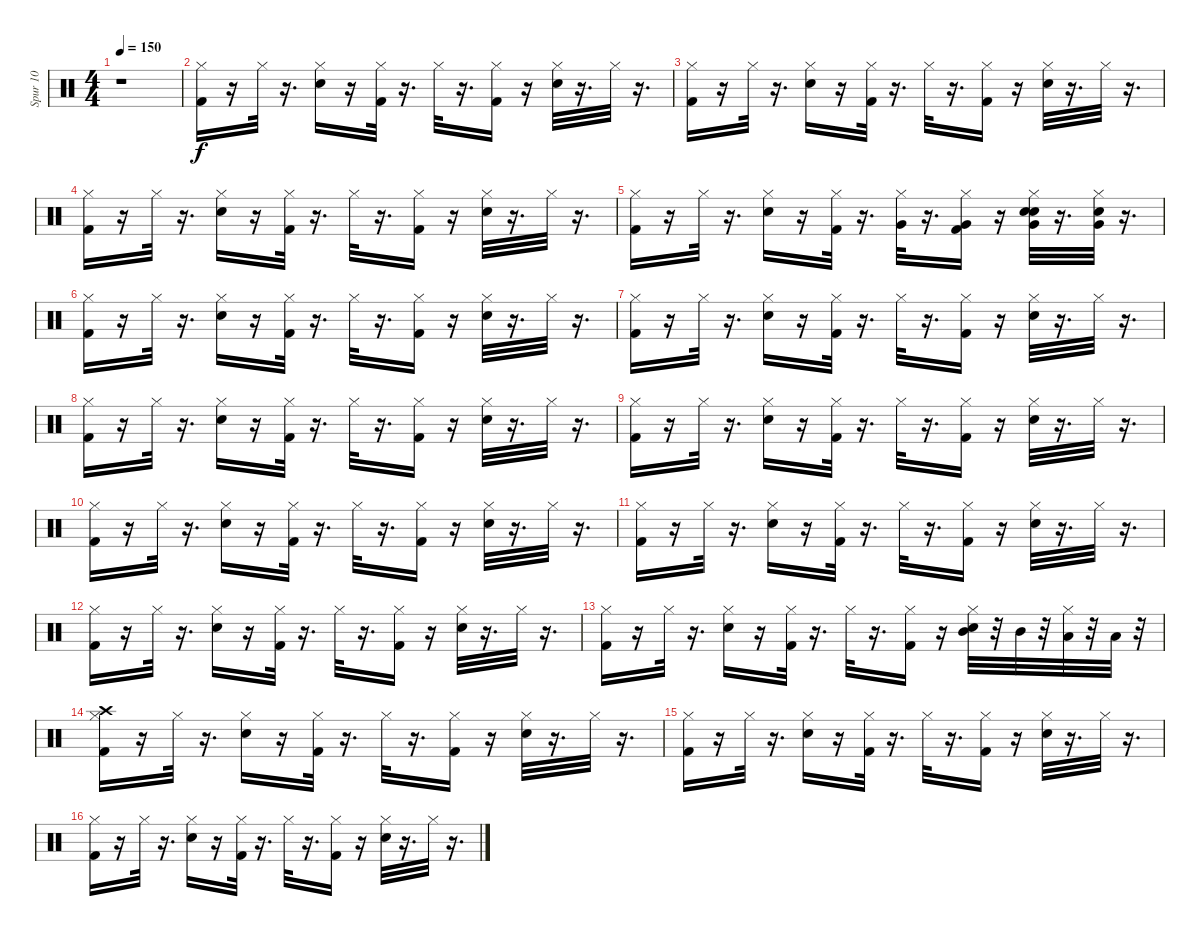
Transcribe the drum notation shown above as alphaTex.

\track ("Spur 10" "Spur 10") {instrument percussion}
\staff {score}
\articulation defaults
\ts (4 4)
\tempo 150
\clef neutral
\ks c
r.1{dy f} |
("Hi-Hat (closed)" "Kick (hit) 2").16 r.16 "Hi-Hat (closed)".32 r.16{d} ("Hi-Hat (closed)" "Electric Snare (hit)").16 r.16 ("Hi-Hat (closed)" "Kick (hit) 2").32 r.16{d} "Hi-Hat (closed)".32 r.16{d} ("Kick (hit) 2" "Hi-Hat (closed)").16 r.16 ("Electric Snare (hit)" "Hi-Hat (closed)").32 r.16{d} "Hi-Hat (closed)".32 r.16{d} |
("Kick (hit) 2" "Hi-Hat (closed)").16 r.16 "Hi-Hat (closed)".32 r.16{d} ("Electric Snare (hit)" "Hi-Hat (closed)").16 r.16 ("Kick (hit) 2" "Hi-Hat (closed)").32 r.16{d} "Hi-Hat (closed)".32 r.16{d} ("Kick (hit) 2" "Hi-Hat (closed)").16 r.16 ("Electric Snare (hit)" "Hi-Hat (closed)").32 r.16{d} "Hi-Hat (closed)".32 r.16{d} |
("Kick (hit) 2" "Hi-Hat (closed)").16 r.16 "Hi-Hat (closed)".32 r.16{d} ("Electric Snare (hit)" "Hi-Hat (closed)").16 r.16 ("Kick (hit) 2" "Hi-Hat (closed)").32 r.16{d} "Hi-Hat (closed)".32 r.16{d} ("Kick (hit) 2" "Hi-Hat (closed)").16 r.16 ("Electric Snare (hit)" "Hi-Hat (closed)").32 r.16{d} "Hi-Hat (closed)".32 r.16{d} |
("Kick (hit) 2" "Hi-Hat (closed)").16 r.16 "Hi-Hat (closed)".32 r.16{d} ("Electric Snare (hit)" "Hi-Hat (closed)").16 r.16 ("Kick (hit) 2" "Hi-Hat (closed)").32 r.16{d} ("Very Low Tom (hit)" "Hi-Hat (closed)").32 r.16{d} ("Kick (hit) 2" "Hi-Hat (closed)" "Very Low Tom (hit)").16 r.16 ("Electric Snare (hit)" "Hand Clap (hit)" "Very Low Tom (hit)" "Hi-Hat (closed)").32 r.16{d} ("Hand Clap (hit)" "Very Low Tom (hit)" "Hi-Hat (closed)").32 r.16{d} |
("Hi-Hat (closed)" "Kick (hit) 2").16 r.16 "Hi-Hat (closed)".32 r.16{d} ("Hi-Hat (closed)" "Electric Snare (hit)").16 r.16 ("Kick (hit) 2" "Hi-Hat (closed)").32 r.16{d} "Hi-Hat (closed)".32 r.16{d} ("Hi-Hat (closed)" "Kick (hit) 2").16 r.16 ("Hi-Hat (closed)" "Electric Snare (hit)").32 r.16{d} "Hi-Hat (closed)".32 r.16{d} |
("Kick (hit) 2" "Hi-Hat (closed)").16 r.16 "Hi-Hat (closed)".32 r.16{d} ("Electric Snare (hit)" "Hi-Hat (closed)").16 r.16 ("Kick (hit) 2" "Hi-Hat (closed)").32 r.16{d} "Hi-Hat (closed)".32 r.16{d} ("Kick (hit) 2" "Hi-Hat (closed)").16 r.16 ("Electric Snare (hit)" "Hi-Hat (closed)").32 r.16{d} "Hi-Hat (closed)".32 r.16{d} |
("Kick (hit) 2" "Hi-Hat (closed)").16 r.16 "Hi-Hat (closed)".32 r.16{d} ("Electric Snare (hit)" "Hi-Hat (closed)").16 r.16 ("Kick (hit) 2" "Hi-Hat (closed)").32 r.16{d} "Hi-Hat (closed)".32 r.16{d} ("Kick (hit) 2" "Hi-Hat (closed)").16 r.16 ("Electric Snare (hit)" "Hi-Hat (closed)").32 r.16{d} "Hi-Hat (closed)".32 r.16{d} |
("Kick (hit) 2" "Hi-Hat (closed)").16 r.16 "Hi-Hat (closed)".32 r.16{d} ("Electric Snare (hit)" "Hi-Hat (closed)").16 r.16 ("Kick (hit) 2" "Hi-Hat (closed)").32 r.16{d} "Hi-Hat (closed)".32 r.16{d} ("Kick (hit) 2" "Hi-Hat (closed)").16 r.16 ("Electric Snare (hit)" "Hi-Hat (closed)").32 r.16{d} "Hi-Hat (closed)".32 r.16{d} |
("Hi-Hat (closed)" "Kick (hit) 2").16 r.16 "Hi-Hat (closed)".32 r.16{d} ("Electric Snare (hit)" "Hi-Hat (closed)").16 r.16 ("Hi-Hat (closed)" "Kick (hit) 2").32 r.16{d} "Hi-Hat (closed)".32 r.16{d} ("Hi-Hat (closed)" "Kick (hit) 2").16 r.16 ("Hi-Hat (closed)" "Electric Snare (hit)").32 r.16{d} "Hi-Hat (closed)".32 r.16{d} |
("Hi-Hat (closed)" "Kick (hit) 2").16 r.16 "Hi-Hat (closed)".32 r.16{d} ("Electric Snare (hit)" "Hi-Hat (closed)").16 r.16 ("Kick (hit) 2" "Hi-Hat (closed)").32 r.16{d} "Hi-Hat (closed)".32 r.16{d} ("Kick (hit) 2" "Hi-Hat (closed)").16 r.16 ("Electric Snare (hit)" "Hi-Hat (closed)").32 r.16{d} "Hi-Hat (closed)".32 r.16{d} |
("Kick (hit) 2" "Hi-Hat (closed)").16 r.16 "Hi-Hat (closed)".32 r.16{d} ("Electric Snare (hit)" "Hi-Hat (closed)").16 r.16 ("Kick (hit) 2" "Hi-Hat (closed)").32 r.16{d} "Hi-Hat (closed)".32 r.16{d} ("Kick (hit) 2" "Hi-Hat (closed)").16 r.16 ("Electric Snare (hit)" "Hi-Hat (closed)").32 r.16{d} "Hi-Hat (closed)".32 r.16{d} |
("Kick (hit) 2" "Hi-Hat (closed)").16 r.16 "Hi-Hat (closed)".32 r.16{d} ("Electric Snare (hit)" "Hi-Hat (closed)").16 r.16 ("Kick (hit) 2" "Hi-Hat (closed)").32 r.16{d} "Hi-Hat (closed)".32 r.16{d} ("Kick (hit) 2" "Hi-Hat (closed)").16 r.16 ("Electric Snare (hit)" "Hi-Hat (closed)" "Mid Tom (hit)").32 r.32 "Mid Tom (hit)".32 r.32 ("Low Tom (hit)" "Hi-Hat (closed)").32 r.32 "Low Tom (hit)".32 r.32 |
("Hi-Hat (closed)" "Crash high (hit)" "Kick (hit) 2").16 r.16 "Hi-Hat (closed)".32 r.16{d} ("Electric Snare (hit)" "Hi-Hat (closed)").16 r.16 ("Hi-Hat (closed)" "Kick (hit) 2").32 r.16{d} "Hi-Hat (closed)".32 r.16{d} ("Kick (hit) 2" "Hi-Hat (closed)").16 r.16 ("Hi-Hat (closed)" "Electric Snare (hit)").32 r.16{d} "Hi-Hat (closed)".32 r.16{d} |
("Kick (hit) 2" "Hi-Hat (closed)").16 r.16 "Hi-Hat (closed)".32 r.16{d} ("Electric Snare (hit)" "Hi-Hat (closed)").16 r.16 ("Kick (hit) 2" "Hi-Hat (closed)").32 r.16{d} "Hi-Hat (closed)".32 r.16{d} ("Kick (hit) 2" "Hi-Hat (closed)").16 r.16 ("Electric Snare (hit)" "Hi-Hat (closed)").32 r.16{d} "Hi-Hat (closed)".32 r.16{d} |
("Hi-Hat (closed)" "Kick (hit) 2").16 r.16 "Hi-Hat (closed)".32 r.16{d} ("Electric Snare (hit)" "Hi-Hat (closed)").16 r.16 ("Kick (hit) 2" "Hi-Hat (closed)").32 r.16{d} "Hi-Hat (closed)".32 r.16{d} ("Kick (hit) 2" "Hi-Hat (closed)").16 r.16 ("Electric Snare (hit)" "Hi-Hat (closed)").32 r.16{d} "Hi-Hat (closed)".32 r.16{d}
